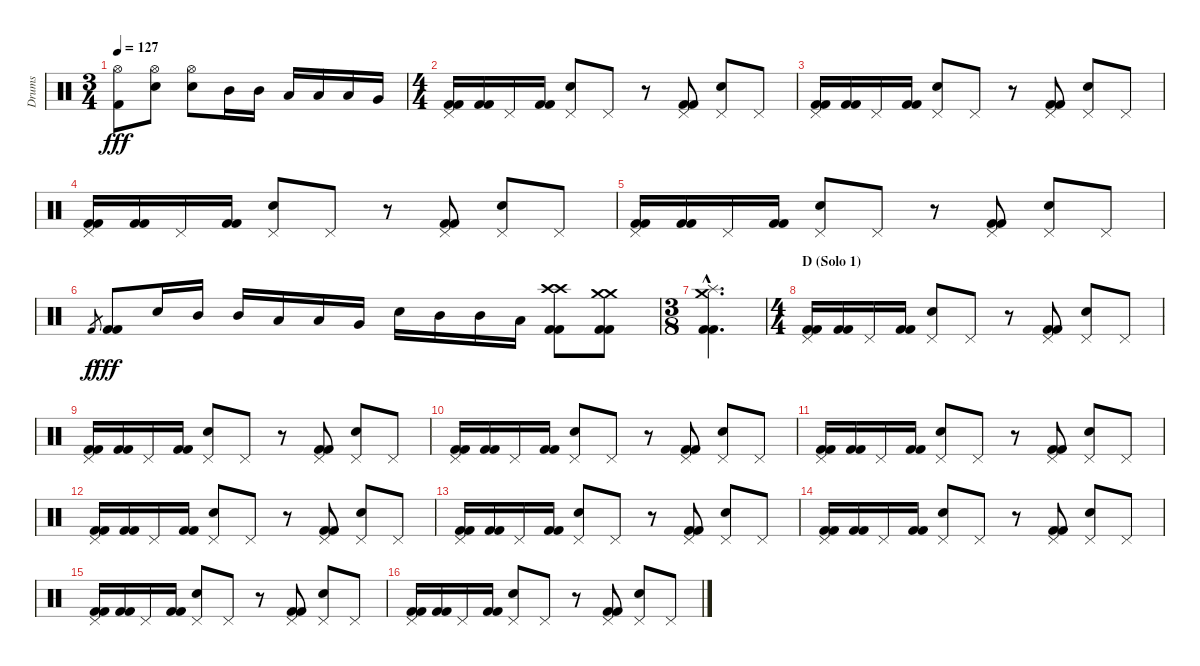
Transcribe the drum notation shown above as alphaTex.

\track ("Drums" "Drums") {instrument percussion}
\staff {score}
\articulation defaults
\ts (3 4)
\tempo 127
\clef neutral
\ks c
("Hi-Hat (open)" "Kick (hit) 2").8{dy fff} ("Hi-Hat (open)" "Electric Snare (hit)").8 ("Hi-Hat (open)" "Electric Snare (hit)").8 "Mid Tom (hit)".16 "Mid Tom (hit)".16 "Low Tom (hit)".16 "Low Tom (hit)".16 "Low Tom (hit)".16 "Very Low Tom (hit)".16 |
\ts (4 4)
("Pedal Hi-Hat (hit)" "Kick (hit) 2" "Kick (hit) 2").16 ("Kick (hit) 2" "Kick (hit) 2").16 "Pedal Hi-Hat (hit)".16 ("Kick (hit) 2" "Kick (hit) 2").16 ("Pedal Hi-Hat (hit)" "Electric Snare (hit)").8 "Pedal Hi-Hat (hit)".8 r.8 ("Pedal Hi-Hat (hit)" "Kick (hit) 2" "Kick (hit) 2").8 ("Pedal Hi-Hat (hit)" "Electric Snare (hit)").8 "Pedal Hi-Hat (hit)".8 |
("Pedal Hi-Hat (hit)" "Kick (hit) 2" "Kick (hit) 2").16 ("Kick (hit) 2" "Kick (hit) 2").16 "Pedal Hi-Hat (hit)".16 ("Kick (hit) 2" "Kick (hit) 2").16 ("Pedal Hi-Hat (hit)" "Electric Snare (hit)").8 "Pedal Hi-Hat (hit)".8 r.8 ("Pedal Hi-Hat (hit)" "Kick (hit) 2" "Kick (hit) 2").8 ("Pedal Hi-Hat (hit)" "Electric Snare (hit)").8 "Pedal Hi-Hat (hit)".8 |
("Pedal Hi-Hat (hit)" "Kick (hit) 2" "Kick (hit) 2").16 ("Kick (hit) 2" "Kick (hit) 2").16 "Pedal Hi-Hat (hit)".16 ("Kick (hit) 2" "Kick (hit) 2").16 ("Pedal Hi-Hat (hit)" "Electric Snare (hit)").8 "Pedal Hi-Hat (hit)".8 r.8 ("Pedal Hi-Hat (hit)" "Kick (hit) 2" "Kick (hit) 2").8 ("Pedal Hi-Hat (hit)" "Electric Snare (hit)").8 "Pedal Hi-Hat (hit)".8 |
("Pedal Hi-Hat (hit)" "Kick (hit) 2" "Kick (hit) 2").16 ("Kick (hit) 2" "Kick (hit) 2").16 "Pedal Hi-Hat (hit)".16 ("Kick (hit) 2" "Kick (hit) 2").16 ("Pedal Hi-Hat (hit)" "Electric Snare (hit)").8 "Pedal Hi-Hat (hit)".8 r.8 ("Pedal Hi-Hat (hit)" "Kick (hit) 2" "Kick (hit) 2").8 ("Pedal Hi-Hat (hit)" "Electric Snare (hit)").8 "Pedal Hi-Hat (hit)".8 |
"Kick (hit) 2".8{gr dy f} ("Kick (hit) 2" "Kick (hit) 2").8{dy fff} "Electric Snare (hit)".16 "Mid Tom (hit)".16 "Mid Tom (hit)".16 "Low Tom (hit)".16 "Low Tom (hit)".16 "Very Low Tom (hit)".16 "Electric Snare (hit)".16 "Mid Tom (hit)".16 "Mid Tom (hit)".16 "Low Tom (hit)".16 ("Crash high (hit)" "Crash high (hit)" "Kick (hit) 2" "Kick (hit) 2").8 ("Crash medium (hit)" "Crash medium (hit)" "Kick (hit) 2" "Kick (hit) 2").8 |
\ts (3 8)
("Splash (hit)"{hac} "Crash medium (hit)"{hac} "Kick (hit) 2"{hac} "Kick (hit) 2"{hac}).4{d} |
\ts (4 4)
\section ("" "D (Solo 1)")
("Pedal Hi-Hat (hit)" "Kick (hit) 2" "Kick (hit) 2").16 ("Kick (hit) 2" "Kick (hit) 2").16 "Pedal Hi-Hat (hit)".16 ("Kick (hit) 2" "Kick (hit) 2").16 ("Pedal Hi-Hat (hit)" "Electric Snare (hit)").8 "Pedal Hi-Hat (hit)".8 r.8 ("Pedal Hi-Hat (hit)" "Kick (hit) 2" "Kick (hit) 2").8 ("Pedal Hi-Hat (hit)" "Electric Snare (hit)").8 "Pedal Hi-Hat (hit)".8 |
("Pedal Hi-Hat (hit)" "Kick (hit) 2" "Kick (hit) 2").16 ("Kick (hit) 2" "Kick (hit) 2").16 "Pedal Hi-Hat (hit)".16 ("Kick (hit) 2" "Kick (hit) 2").16 ("Pedal Hi-Hat (hit)" "Electric Snare (hit)").8 "Pedal Hi-Hat (hit)".8 r.8 ("Pedal Hi-Hat (hit)" "Kick (hit) 2" "Kick (hit) 2").8 ("Pedal Hi-Hat (hit)" "Electric Snare (hit)").8 "Pedal Hi-Hat (hit)".8 |
("Pedal Hi-Hat (hit)" "Kick (hit) 2" "Kick (hit) 2").16 ("Kick (hit) 2" "Kick (hit) 2").16 "Pedal Hi-Hat (hit)".16 ("Kick (hit) 2" "Kick (hit) 2").16 ("Pedal Hi-Hat (hit)" "Electric Snare (hit)").8 "Pedal Hi-Hat (hit)".8 r.8 ("Pedal Hi-Hat (hit)" "Kick (hit) 2" "Kick (hit) 2").8 ("Pedal Hi-Hat (hit)" "Electric Snare (hit)").8 "Pedal Hi-Hat (hit)".8 |
("Pedal Hi-Hat (hit)" "Kick (hit) 2" "Kick (hit) 2").16 ("Kick (hit) 2" "Kick (hit) 2").16 "Pedal Hi-Hat (hit)".16 ("Kick (hit) 2" "Kick (hit) 2").16 ("Pedal Hi-Hat (hit)" "Electric Snare (hit)").8 "Pedal Hi-Hat (hit)".8 r.8 ("Pedal Hi-Hat (hit)" "Kick (hit) 2" "Kick (hit) 2").8 ("Pedal Hi-Hat (hit)" "Electric Snare (hit)").8 "Pedal Hi-Hat (hit)".8 |
("Pedal Hi-Hat (hit)" "Kick (hit) 2" "Kick (hit) 2").16 ("Kick (hit) 2" "Kick (hit) 2").16 "Pedal Hi-Hat (hit)".16 ("Kick (hit) 2" "Kick (hit) 2").16 ("Pedal Hi-Hat (hit)" "Electric Snare (hit)").8 "Pedal Hi-Hat (hit)".8 r.8 ("Pedal Hi-Hat (hit)" "Kick (hit) 2" "Kick (hit) 2").8 ("Pedal Hi-Hat (hit)" "Electric Snare (hit)").8 "Pedal Hi-Hat (hit)".8 |
("Pedal Hi-Hat (hit)" "Kick (hit) 2" "Kick (hit) 2").16 ("Kick (hit) 2" "Kick (hit) 2").16 "Pedal Hi-Hat (hit)".16 ("Kick (hit) 2" "Kick (hit) 2").16 ("Pedal Hi-Hat (hit)" "Electric Snare (hit)").8 "Pedal Hi-Hat (hit)".8 r.8 ("Pedal Hi-Hat (hit)" "Kick (hit) 2" "Kick (hit) 2").8 ("Pedal Hi-Hat (hit)" "Electric Snare (hit)").8 "Pedal Hi-Hat (hit)".8 |
("Pedal Hi-Hat (hit)" "Kick (hit) 2" "Kick (hit) 2").16 ("Kick (hit) 2" "Kick (hit) 2").16 "Pedal Hi-Hat (hit)".16 ("Kick (hit) 2" "Kick (hit) 2").16 ("Pedal Hi-Hat (hit)" "Electric Snare (hit)").8 "Pedal Hi-Hat (hit)".8 r.8 ("Pedal Hi-Hat (hit)" "Kick (hit) 2" "Kick (hit) 2").8 ("Pedal Hi-Hat (hit)" "Electric Snare (hit)").8 "Pedal Hi-Hat (hit)".8 |
("Pedal Hi-Hat (hit)" "Kick (hit) 2" "Kick (hit) 2").16 ("Kick (hit) 2" "Kick (hit) 2").16 "Pedal Hi-Hat (hit)".16 ("Kick (hit) 2" "Kick (hit) 2").16 ("Pedal Hi-Hat (hit)" "Electric Snare (hit)").8 "Pedal Hi-Hat (hit)".8 r.8 ("Pedal Hi-Hat (hit)" "Kick (hit) 2" "Kick (hit) 2").8 ("Pedal Hi-Hat (hit)" "Electric Snare (hit)").8 "Pedal Hi-Hat (hit)".8 |
("Pedal Hi-Hat (hit)" "Kick (hit) 2" "Kick (hit) 2").16 ("Kick (hit) 2" "Kick (hit) 2").16 "Pedal Hi-Hat (hit)".16 ("Kick (hit) 2" "Kick (hit) 2").16 ("Pedal Hi-Hat (hit)" "Electric Snare (hit)").8 "Pedal Hi-Hat (hit)".8 r.8 ("Pedal Hi-Hat (hit)" "Kick (hit) 2" "Kick (hit) 2").8 ("Pedal Hi-Hat (hit)" "Electric Snare (hit)").8 "Pedal Hi-Hat (hit)".8
